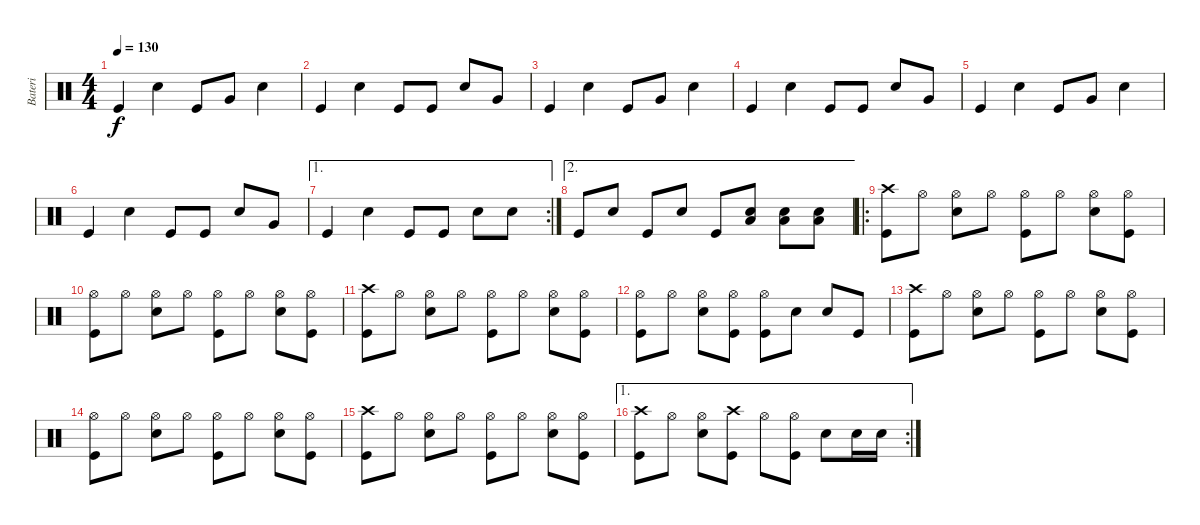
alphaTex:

\track ("Bateri" "Bateri") {instrument percussion}
\staff {score}
\articulation defaults
\ts (4 4)
\tempo 130
\clef neutral
\ks c "Kick (hit)".4{dy f} "Electric Snare (hit)".4 "Kick (hit)".8 "Very Low Tom (hit)".8 "Electric Snare (hit)".4
|
"Kick (hit)".4 "Electric Snare (hit)".4 "Kick (hit)".8 "Kick (hit)".8 "Electric Snare (hit)".8 "Very Low Tom (hit)".8 |
"Kick (hit)".4 "Electric Snare (hit)".4 "Kick (hit)".8 "Very Low Tom (hit)".8 "Electric Snare (hit)".4 |
"Kick (hit)".4 "Electric Snare (hit)".4 "Kick (hit)".8 "Kick (hit)".8 "Electric Snare (hit)".8 "Very Low Tom (hit)".8 |
"Kick (hit)".4 "Electric Snare (hit)".4 "Kick (hit)".8 "Very Low Tom (hit)".8 "Electric Snare (hit)".4 |
"Kick (hit)".4 "Electric Snare (hit)".4 "Kick (hit)".8 "Kick (hit)".8 "Electric Snare (hit)".8 "Very Low Tom (hit)".8 |
\ae 1
\rc 2 "Kick (hit)".4 "Electric Snare (hit)".4 "Kick (hit)".8 "Kick (hit)".8 "Electric Snare (hit)".8 "Electric Snare (hit)".8
|
\ae 2 "Kick (hit)".8 "Electric Snare (hit)".8 "Kick (hit)".8 "Electric Snare (hit)".8 "Kick (hit)".8
("Electric Snare (hit)" "Low Floor Tom (hit)").8 ("Electric Snare (hit)" "Low Floor Tom (hit)").8 ("Electric Snare (hit)" "Low Floor Tom (hit)").8 |
\ro
("Crash high (hit)" "Kick (hit)").8 "Hi-Hat (open)".8 ("Hi-Hat (open)" "Electric Snare (hit)").8 "Hi-Hat (open)".8 ("Hi-Hat (open)" "Kick (hit)").8 "Hi-Hat (open)".8 ("Hi-Hat (open)" "Electric Snare (hit)").8 ("Hi-Hat (open)" "Kick (hit)").8 |
("Hi-Hat (open)" "Kick (hit)").8 "Hi-Hat (open)".8 ("Hi-Hat (open)" "Electric Snare (hit)").8 "Hi-Hat (open)".8 ("Hi-Hat (open)" "Kick (hit)").8 "Hi-Hat (open)".8 ("Hi-Hat (open)" "Electric Snare (hit)").8 ("Hi-Hat (open)" "Kick (hit)").8 |
("Crash high (hit)" "Kick (hit)").8 "Hi-Hat (open)".8 ("Hi-Hat (open)" "Electric Snare (hit)").8 "Hi-Hat (open)".8 ("Hi-Hat (open)" "Kick (hit)").8 "Hi-Hat (open)".8 ("Hi-Hat (open)" "Electric Snare (hit)").8 ("Hi-Hat (open)" "Kick (hit)").8 |
("Hi-Hat (open)" "Kick (hit)").8 "Hi-Hat (open)".8 ("Hi-Hat (open)" "Electric Snare (hit)").8 ("Hi-Hat (open)" "Kick (hit)").8 ("Hi-Hat (open)" "Kick (hit)").8 "Electric Snare (hit)".8 "Electric Snare (hit)".8 "Kick (hit)".8 |
("Crash high (hit)" "Kick (hit)").8 "Hi-Hat (open)".8 ("Hi-Hat (open)" "Electric Snare (hit)").8 "Hi-Hat (open)".8 ("Hi-Hat (open)" "Kick (hit)").8 "Hi-Hat (open)".8 ("Hi-Hat (open)" "Electric Snare (hit)").8 ("Hi-Hat (open)" "Kick (hit)").8 |
("Hi-Hat (open)" "Kick (hit)").8 "Hi-Hat (open)".8 ("Hi-Hat (open)" "Electric Snare (hit)").8 "Hi-Hat (open)".8 ("Hi-Hat (open)" "Kick (hit)").8 "Hi-Hat (open)".8 ("Hi-Hat (open)" "Electric Snare (hit)").8 ("Hi-Hat (open)" "Kick (hit)").8 |
("Crash high (hit)" "Kick (hit)").8 "Hi-Hat (open)".8 ("Hi-Hat (open)" "Electric Snare (hit)").8 "Hi-Hat (open)".8 ("Hi-Hat (open)" "Kick (hit)").8 "Hi-Hat (open)".8 ("Hi-Hat (open)" "Electric Snare (hit)").8 ("Hi-Hat (open)" "Kick (hit)").8 |
\ae 1
\rc 2
("Crash high (hit)" "Kick (hit)").8 "Hi-Hat (open)".8 ("Hi-Hat (open)" "Electric Snare (hit)").8 ("Crash high (hit)" "Kick (hit)").8 "Hi-Hat (open)".8 ("Hi-Hat (open)" "Kick (hit)").8 "Electric Snare (hit)".8 "Electric Snare (hit)".16 "Electric Snare (hit)".16
